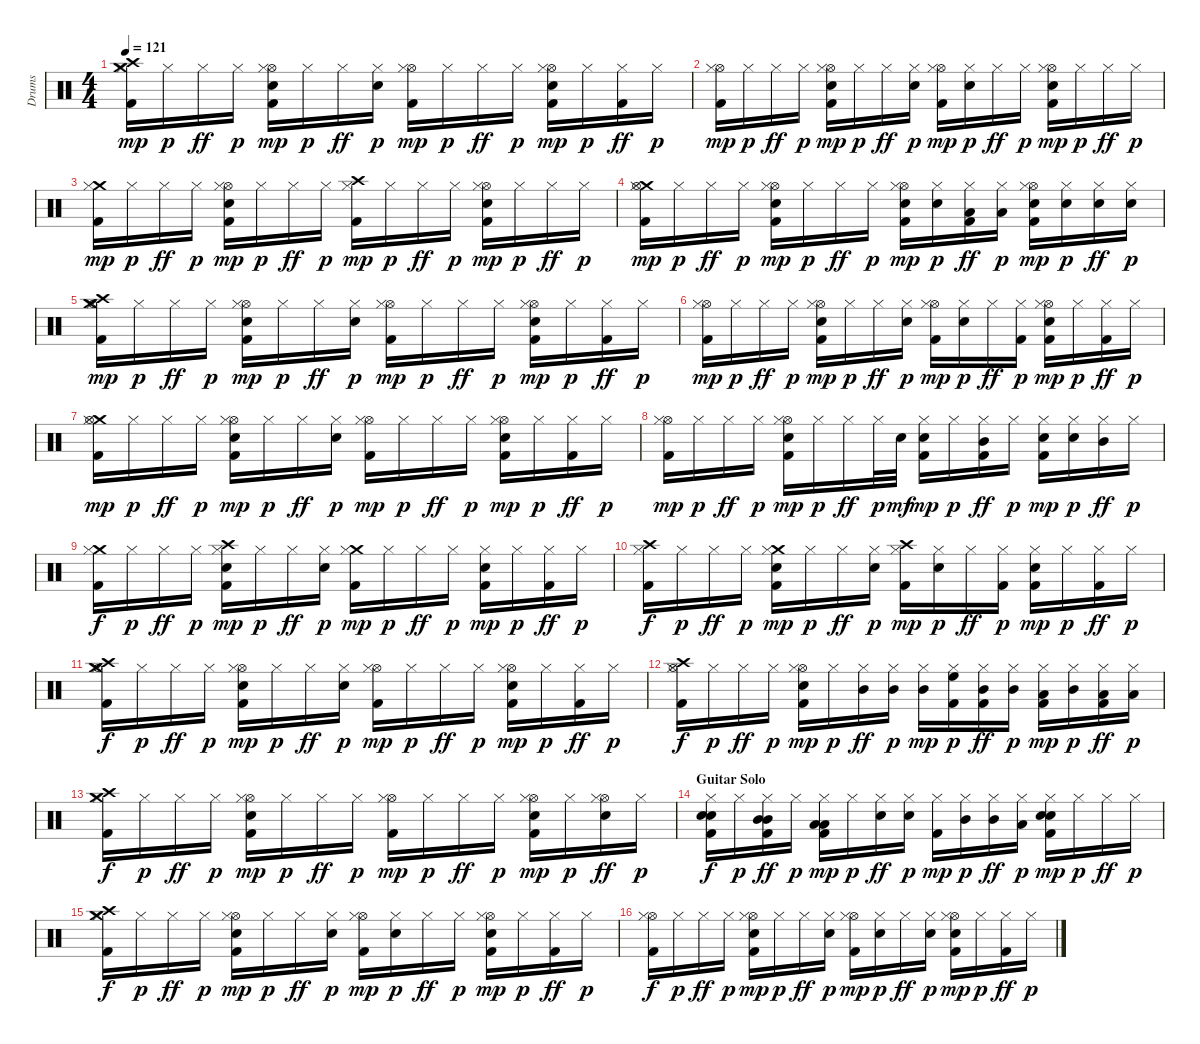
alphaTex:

\track ("Drums" "Drums") {instrument percussion}
\staff {score}
\articulation defaults
\ts (4 4)
\tempo 121
\clef neutral
\ks c
("Crash high (hit)" "Crash medium (hit)" "Kick (hit) 2" "Hi-Hat (closed)").16{dy mp} "Hi-Hat (closed)".16{dy p} "Hi-Hat (closed)".16{dy ff} "Hi-Hat (closed)".16{dy p} ("Hi-Hat (open)" "Kick (hit) 2" "Electric Snare (hit)" "Hi-Hat (closed)").16{dy mp} "Hi-Hat (closed)".16{dy p} "Hi-Hat (closed)".16{dy ff} ("Electric Snare (hit)" "Hi-Hat (closed)").16{dy p} ("Hi-Hat (open)" "Kick (hit) 2" "Hi-Hat (closed)").16{dy mp} "Hi-Hat (closed)".16{dy p} "Hi-Hat (closed)".16{dy ff} "Hi-Hat (closed)".16{dy p} ("Hi-Hat (open)" "Kick (hit) 2" "Electric Snare (hit)" "Hi-Hat (closed)").16{dy mp} "Hi-Hat (closed)".16{dy p} ("Kick (hit) 2" "Hi-Hat (closed)").16{dy ff} "Hi-Hat (closed)".16{dy p} |
("Hi-Hat (open)" "Kick (hit) 2" "Hi-Hat (closed)").16{dy mp} "Hi-Hat (closed)".16{dy p} "Hi-Hat (closed)".16{dy ff} "Hi-Hat (closed)".16{dy p} ("Hi-Hat (open)" "Kick (hit) 2" "Electric Snare (hit)" "Hi-Hat (closed)").16{dy mp} "Hi-Hat (closed)".16{dy p} "Hi-Hat (closed)".16{dy ff} ("Electric Snare (hit)" "Hi-Hat (closed)").16{dy p} ("Hi-Hat (open)" "Kick (hit) 2" "Hi-Hat (closed)").16{dy mp} ("Electric Snare (hit)" "Hi-Hat (closed)").16{dy p} "Hi-Hat (closed)".16{dy ff} "Hi-Hat (closed)".16{dy p} ("Hi-Hat (open)" "Kick (hit) 2" "Electric Snare (hit)" "Hi-Hat (closed)").16{dy mp} "Hi-Hat (closed)".16{dy p} "Hi-Hat (closed)".16{dy ff} "Hi-Hat (closed)".16{dy p} |
("Crash medium (hit)" "Kick (hit) 2" "Hi-Hat (closed)").16{dy mp} "Hi-Hat (closed)".16{dy p} "Hi-Hat (closed)".16{dy ff} "Hi-Hat (closed)".16{dy p} ("Hi-Hat (open)" "Kick (hit) 2" "Electric Snare (hit)" "Hi-Hat (closed)").16{dy mp} "Hi-Hat (closed)".16{dy p} "Hi-Hat (closed)".16{dy ff} "Hi-Hat (closed)".16{dy p} ("Crash high (hit)" "Kick (hit) 2" "Hi-Hat (closed)").16{dy mp} "Hi-Hat (closed)".16{dy p} "Hi-Hat (closed)".16{dy ff} "Hi-Hat (closed)".16{dy p} ("Hi-Hat (open)" "Kick (hit) 2" "Electric Snare (hit)" "Hi-Hat (closed)").16{dy mp} "Hi-Hat (closed)".16{dy p} "Hi-Hat (closed)".16{dy ff} "Hi-Hat (closed)".16{dy p} |
("Crash medium (hit)" "Kick (hit) 2" "Hi-Hat (open)" "Hi-Hat (closed)").16{dy mp} "Hi-Hat (closed)".16{dy p} "Hi-Hat (closed)".16{dy ff} "Hi-Hat (closed)".16{dy p} ("Kick (hit) 2" "Hi-Hat (open)" "Electric Snare (hit)" "Hi-Hat (closed)").16{dy mp} "Hi-Hat (closed)".16{dy p} "Hi-Hat (closed)".16{dy ff} "Hi-Hat (closed)".16{dy p} ("Kick (hit) 2" "Hi-Hat (open)" "Snare (hit) 2" "Hi-Hat (closed)").16{dy mp} ("Electric Snare (hit)" "Hi-Hat (closed)").16{dy p} ("Kick (hit) 2" "Low Tom (hit)" "Hi-Hat (closed)").16{dy ff} ("Low Tom (hit)" "Hi-Hat (closed)").16{dy p} ("Kick (hit) 2" "Hi-Hat (open)" "Snare (hit) 2" "Hi-Hat (closed)").16{dy mp} ("Electric Snare (hit)" "Hi-Hat (closed)").16{dy p} ("Electric Snare (hit)" "Hi-Hat (closed)").16{dy ff} ("Electric Snare (hit)" "Hi-Hat (closed)").16{dy p} |
("Kick (hit) 2" "Crash high (hit)" "Crash medium (hit)" "Hi-Hat (open)" "Hi-Hat (closed)").16{dy mp} "Hi-Hat (closed)".16{dy p} "Hi-Hat (closed)".16{dy ff} "Hi-Hat (closed)".16{dy p} ("Kick (hit) 2" "Hi-Hat (open)" "Electric Snare (hit)" "Hi-Hat (closed)").16{dy mp} "Hi-Hat (closed)".16{dy p} "Hi-Hat (closed)".16{dy ff} ("Electric Snare (hit)" "Hi-Hat (closed)").16{dy p} ("Kick (hit) 2" "Hi-Hat (open)" "Hi-Hat (closed)").16{dy mp} "Hi-Hat (closed)".16{dy p} "Hi-Hat (closed)".16{dy ff} "Hi-Hat (closed)".16{dy p} ("Kick (hit) 2" "Hi-Hat (open)" "Electric Snare (hit)" "Hi-Hat (closed)").16{dy mp} "Hi-Hat (closed)".16{dy p} ("Kick (hit) 2" "Hi-Hat (closed)").16{dy ff} "Hi-Hat (closed)".16{dy p} |
("Kick (hit) 2" "Hi-Hat (open)" "Hi-Hat (closed)").16{dy mp} "Hi-Hat (closed)".16{dy p} "Hi-Hat (closed)".16{dy ff} "Hi-Hat (closed)".16{dy p} ("Kick (hit) 2" "Hi-Hat (open)" "Electric Snare (hit)" "Hi-Hat (closed)").16{dy mp} "Hi-Hat (closed)".16{dy p} "Hi-Hat (closed)".16{dy ff} ("Electric Snare (hit)" "Hi-Hat (closed)").16{dy p} ("Kick (hit) 2" "Hi-Hat (open)" "Hi-Hat (closed)").16{dy mp} ("Electric Snare (hit)" "Hi-Hat (closed)").16{dy p} "Hi-Hat (closed)".16{dy ff} ("Kick (hit) 2" "Hi-Hat (closed)").16{dy p} ("Kick (hit) 2" "Hi-Hat (open)" "Electric Snare (hit)" "Hi-Hat (closed)").16{dy mp} "Hi-Hat (closed)".16{dy p} ("Kick (hit) 2" "Hi-Hat (closed)").16{dy ff} "Hi-Hat (closed)".16{dy p} |
("Crash medium (hit)" "Kick (hit) 2" "Hi-Hat (open)" "Hi-Hat (closed)").16{dy mp} "Hi-Hat (closed)".16{dy p} "Hi-Hat (closed)".16{dy ff} "Hi-Hat (closed)".16{dy p} ("Kick (hit) 2" "Hi-Hat (open)" "Electric Snare (hit)" "Hi-Hat (closed)").16{dy mp} "Hi-Hat (closed)".16{dy p} "Hi-Hat (closed)".16{dy ff} ("Electric Snare (hit)" "Hi-Hat (closed)").16{dy p} ("Kick (hit) 2" "Hi-Hat (open)" "Hi-Hat (closed)").16{dy mp} "Hi-Hat (closed)".16{dy p} "Hi-Hat (closed)".16{dy ff} "Hi-Hat (closed)".16{dy p} ("Kick (hit) 2" "Hi-Hat (open)" "Electric Snare (hit)" "Hi-Hat (closed)").16{dy mp} "Hi-Hat (closed)".16{dy p} ("Kick (hit) 2" "Hi-Hat (closed)").16{dy ff} "Hi-Hat (closed)".16{dy p} |
("Kick (hit) 2" "Hi-Hat (open)" "Hi-Hat (closed)").16{dy mp} "Hi-Hat (closed)".16{dy p} "Hi-Hat (closed)".16{dy ff} "Hi-Hat (closed)".16{dy p} ("Kick (hit) 2" "Hi-Hat (open)" "Electric Snare (hit)" "Hi-Hat (closed)").16{dy mp} "Hi-Hat (closed)".16{dy p} "Hi-Hat (closed)".16{dy ff} "Hi-Hat (closed)".32{dy p} "Electric Snare (hit)".32{dy mf} ("Snare (hit) 2" "Kick (hit) 2" "Hi-Hat (closed)").16{dy mp} "Hi-Hat (closed)".16{dy p} ("Mid Tom (hit)" "Kick (hit) 2" "Hi-Hat (closed)").16{dy ff} "Hi-Hat (closed)".16{dy p} ("Kick (hit) 2" "Electric Snare (hit)" "Hi-Hat (closed)").16{dy mp} ("Electric Snare (hit)" "Hi-Hat (closed)").16{dy p} ("Mid Tom (hit)" "Hi-Hat (closed)").16{dy ff} "Hi-Hat (closed)".16{dy p} |
("Crash medium (hit)" "Kick (hit) 2" "Hi-Hat (closed)").16{dy f} "Hi-Hat (closed)".16{dy p} "Hi-Hat (closed)".16{dy ff} "Hi-Hat (closed)".16{dy p} ("Crash high (hit)" "Kick (hit) 2" "Electric Snare (hit)" "Hi-Hat (closed)").16{dy mp} "Hi-Hat (closed)".16{dy p} "Hi-Hat (closed)".16{dy ff} ("Electric Snare (hit)" "Hi-Hat (closed)").16{dy p} ("Crash medium (hit)" "Kick (hit) 2" "Hi-Hat (closed)").16{dy mp} "Hi-Hat (closed)".16{dy p} "Hi-Hat (closed)".16{dy ff} "Hi-Hat (closed)".16{dy p} ("Kick (hit) 2" "Electric Snare (hit)" "Hi-Hat (closed)").16{dy mp} "Hi-Hat (closed)".16{dy p} ("Kick (hit) 2" "Hi-Hat (closed)").16{dy ff} "Hi-Hat (closed)".16{dy p} |
("Crash high (hit)" "Kick (hit) 2" "Hi-Hat (closed)").16{dy f} "Hi-Hat (closed)".16{dy p} "Hi-Hat (closed)".16{dy ff} "Hi-Hat (closed)".16{dy p} ("Crash medium (hit)" "Kick (hit) 2" "Electric Snare (hit)" "Hi-Hat (closed)").16{dy mp} "Hi-Hat (closed)".16{dy p} "Hi-Hat (closed)".16{dy ff} ("Electric Snare (hit)" "Hi-Hat (closed)").16{dy p} ("Crash high (hit)" "Kick (hit) 2" "Hi-Hat (closed)").16{dy mp} ("Electric Snare (hit)" "Hi-Hat (closed)").16{dy p} "Hi-Hat (closed)".16{dy ff} ("Kick (hit) 2" "Hi-Hat (closed)").16{dy p} ("Kick (hit) 2" "Electric Snare (hit)" "Hi-Hat (closed)").16{dy mp} "Hi-Hat (closed)".16{dy p} ("Kick (hit) 2" "Hi-Hat (closed)").16{dy ff} "Hi-Hat (closed)".16{dy p} |
("Kick (hit) 2" "Hi-Hat (open)" "Crash high (hit)" "Crash medium (hit)" "Hi-Hat (closed)").16{dy f} "Hi-Hat (closed)".16{dy p} "Hi-Hat (closed)".16{dy ff} "Hi-Hat (closed)".16{dy p} ("Hi-Hat (open)" "Kick (hit) 2" "Electric Snare (hit)" "Hi-Hat (closed)").16{dy mp} "Hi-Hat (closed)".16{dy p} "Hi-Hat (closed)".16{dy ff} ("Electric Snare (hit)" "Hi-Hat (closed)").16{dy p} ("Hi-Hat (open)" "Kick (hit) 2" "Hi-Hat (closed)").16{dy mp} "Hi-Hat (closed)".16{dy p} "Hi-Hat (closed)".16{dy ff} "Hi-Hat (closed)".16{dy p} ("Hi-Hat (open)" "Kick (hit) 2" "Electric Snare (hit)" "Hi-Hat (closed)").16{dy mp} "Hi-Hat (closed)".16{dy p} ("Kick (hit) 2" "Hi-Hat (closed)").16{dy ff} "Hi-Hat (closed)".16{dy p} |
("Hi-Hat (open)" "Kick (hit) 2" "Crash high (hit)" "Hi-Hat (closed)").16{dy f} "Hi-Hat (closed)".16{dy p} "Hi-Hat (closed)".16{dy ff} "Hi-Hat (closed)".16{dy p} ("Hi-Hat (open)" "Kick (hit) 2" "Electric Snare (hit)" "Hi-Hat (closed)").16{dy mp} "Hi-Hat (closed)".16{dy p} ("Mid Tom (hit)" "Hi-Hat (closed)").16{dy ff} ("Mid Tom (hit)" "Hi-Hat (closed)").16{dy p} ("Mid Tom (hit)" "Hi-Hat (closed)").16{dy mp} ("High Floor Tom (hit)" "Kick (hit) 2" "Hi-Hat (closed)").16{dy p} ("Mid Tom (hit)" "Kick (hit) 2" "Hi-Hat (closed)").16{dy ff} ("Mid Tom (hit)" "Hi-Hat (closed)").16{dy p} ("Low Tom (hit)" "Kick (hit) 2" "Hi-Hat (closed)").16{dy mp} ("Mid Tom (hit)" "Hi-Hat (closed)").16{dy p} ("Low Tom (hit)" "Kick (hit) 2" "Hi-Hat (closed)").16{dy ff} ("Low Tom (hit)" "Hi-Hat (closed)").16{dy p} |
("Crash medium (hit)" "Kick (hit) 2" "Crash high (hit)" "Hi-Hat (closed)").16{dy f} "Hi-Hat (closed)".16{dy p} "Hi-Hat (closed)".16{dy ff} "Hi-Hat (closed)".16{dy p} ("Kick (hit) 2" "Hi-Hat (open)" "Electric Snare (hit)" "Hi-Hat (closed)").16{dy mp} "Hi-Hat (closed)".16{dy p} "Hi-Hat (closed)".16{dy ff} "Hi-Hat (closed)".16{dy p} ("Kick (hit) 2" "Hi-Hat (open)" "Hi-Hat (closed)").16{dy mp} "Hi-Hat (closed)".16{dy p} "Hi-Hat (closed)".16{dy ff} "Hi-Hat (closed)".16{dy p} ("Kick (hit) 2" "Hi-Hat (open)" "Electric Snare (hit)" "Hi-Hat (closed)").16{dy mp} "Hi-Hat (closed)".16{dy p} ("Hi-Hat (open)" "Electric Snare (hit)" "Hi-Hat (closed)").16{dy ff} "Hi-Hat (closed)".16{dy p} |
\section ("" "Guitar Solo")
("Hi-Hat (closed)" "Kick (hit) 2" "Electric Snare (hit)" "Snare (hit) 2").16{dy f} "Hi-Hat (closed)".16{dy p} ("Mid Tom (hit)" "Mid Tom (hit)" "Kick (hit) 2" "Hi-Hat (closed)").16{dy ff} "Hi-Hat (closed)".16{dy p} ("Low Tom (hit)" "Low Tom (hit)" "Kick (hit) 2" "Hi-Hat (closed)").16{dy mp} "Hi-Hat (closed)".16{dy p} ("Snare (hit) 2" "Hi-Hat (closed)").16{dy ff} ("Electric Snare (hit)" "Hi-Hat (closed)").16{dy p} ("Kick (hit) 2" "Hi-Hat (closed)").16{dy mp} ("Mid Tom (hit)" "Hi-Hat (closed)").16{dy p} ("Mid Tom (hit)" "Hi-Hat (closed)").16{dy ff} ("Low Tom (hit)" "Hi-Hat (closed)").16{dy p} ("Electric Snare (hit)" "Snare (hit) 2" "Kick (hit) 2" "Hi-Hat (closed)").16{dy mp} "Hi-Hat (closed)".16{dy p} "Hi-Hat (closed)".16{dy ff} "Hi-Hat (closed)".16{dy p} |
("Crash high (hit)" "Crash medium (hit)" "Kick (hit) 2" "Hi-Hat (closed)").16{dy f} "Hi-Hat (closed)".16{dy p} "Hi-Hat (closed)".16{dy ff} "Hi-Hat (closed)".16{dy p} ("Hi-Hat (open)" "Kick (hit) 2" "Electric Snare (hit)" "Hi-Hat (closed)").16{dy mp} "Hi-Hat (closed)".16{dy p} "Hi-Hat (closed)".16{dy ff} ("Electric Snare (hit)" "Hi-Hat (closed)").16{dy p} ("Hi-Hat (open)" "Kick (hit) 2" "Hi-Hat (closed)").16{dy mp} ("Electric Snare (hit)" "Hi-Hat (closed)").16{dy p} "Hi-Hat (closed)".16{dy ff} "Hi-Hat (closed)".16{dy p} ("Hi-Hat (open)" "Kick (hit) 2" "Electric Snare (hit)" "Hi-Hat (closed)").16{dy mp} "Hi-Hat (closed)".16{dy p} ("Kick (hit) 2" "Hi-Hat (closed)").16{dy ff} "Hi-Hat (closed)".16{dy p} |
("Hi-Hat (open)" "Kick (hit) 2" "Hi-Hat (closed)").16{dy f} "Hi-Hat (closed)".16{dy p} "Hi-Hat (closed)".16{dy ff} "Hi-Hat (closed)".16{dy p} ("Hi-Hat (open)" "Kick (hit) 2" "Electric Snare (hit)" "Hi-Hat (closed)").16{dy mp} "Hi-Hat (closed)".16{dy p} "Hi-Hat (closed)".16{dy ff} ("Electric Snare (hit)" "Hi-Hat (closed)").16{dy p} ("Hi-Hat (open)" "Kick (hit) 2" "Hi-Hat (closed)").16{dy mp} ("Electric Snare (hit)" "Hi-Hat (closed)").16{dy p} "Hi-Hat (closed)".16{dy ff} ("Electric Snare (hit)" "Hi-Hat (closed)").16{dy p} ("Hi-Hat (open)" "Kick (hit) 2" "Electric Snare (hit)" "Hi-Hat (closed)").16{dy mp} "Hi-Hat (closed)".16{dy p} ("Kick (hit) 2" "Hi-Hat (closed)").16{dy ff} "Hi-Hat (closed)".16{dy p}
